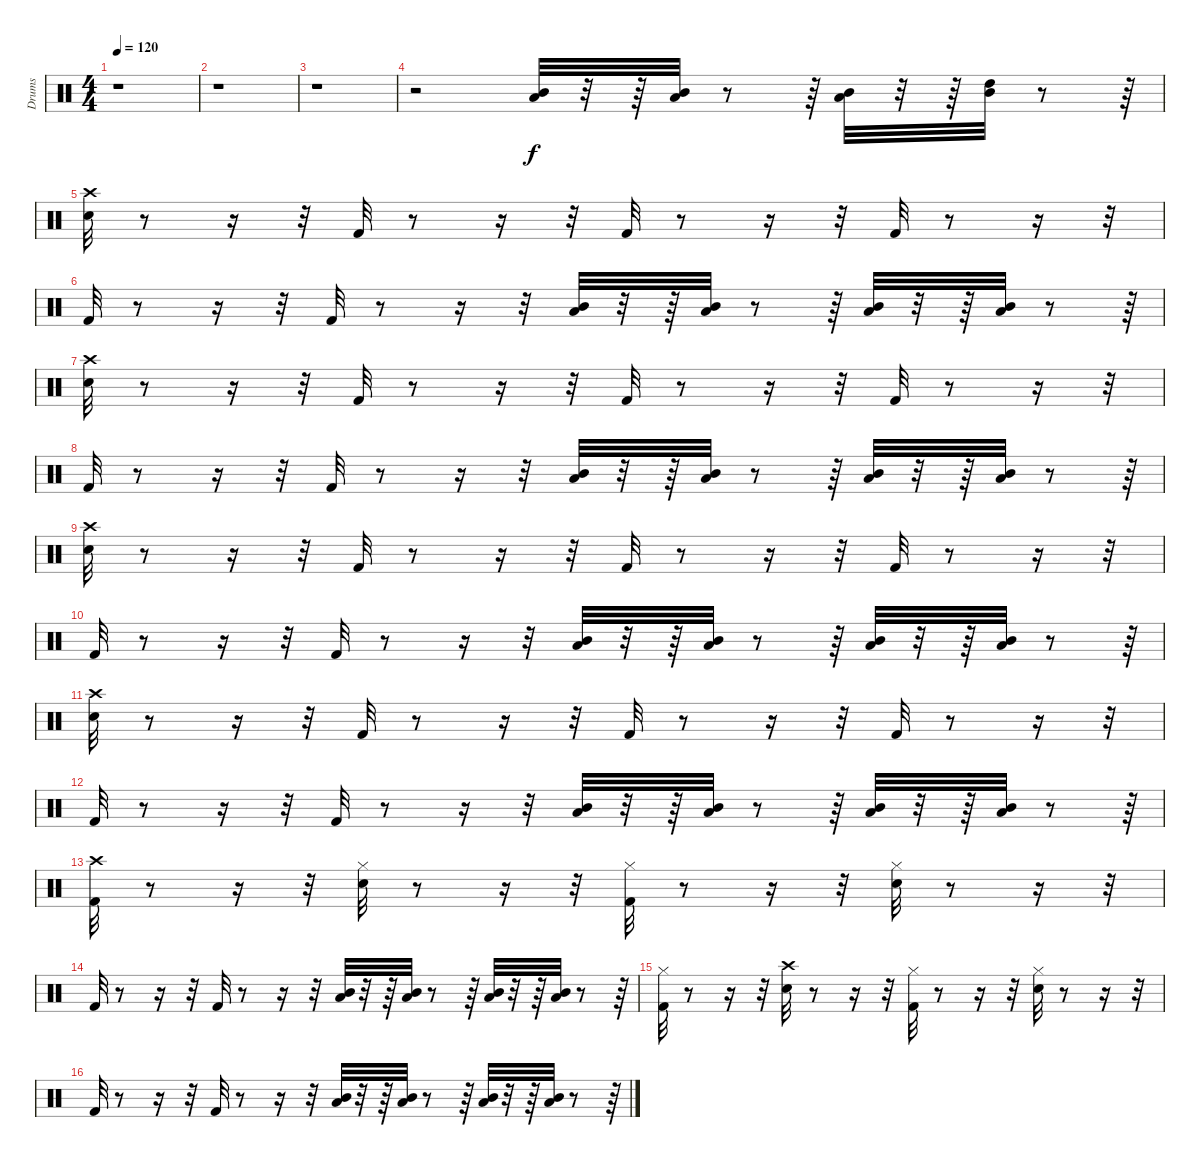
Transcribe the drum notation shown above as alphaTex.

\track ("Drums" "Drums") {instrument percussion}
\staff {score}
\articulation defaults
\ts (4 4)
\tempo 120
\clef neutral
\ks c
r.1{dy f} |
r.1 |
r.1 |
r.2 ("Low Tom (hit)" "Mid Tom (hit)").32 r.32 r.64 ("Low Tom (hit)" "Mid Tom (hit)").32 r.8 r.64 ("Low Tom (hit)" "Mid Tom (hit)").32 r.32 r.64 ("High Tom (hit)" "Mid Tom (hit)").32 r.8 r.64 |
("Electric Snare (hit)" "Crash high (hit)").32 r.8 r.16 r.32 "Kick (hit) 2".32 r.8 r.16 r.32 "Kick (hit) 2".32 r.8 r.16 r.32 "Kick (hit) 2".32 r.8 r.16 r.32 |
"Kick (hit) 2".32 r.8 r.16 r.32 "Kick (hit) 2".32 r.8 r.16 r.32 ("Mid Tom (hit)" "Low Tom (hit)").32 r.32 r.64 ("Mid Tom (hit)" "Low Tom (hit)").32 r.8 r.64 ("Low Tom (hit)" "Mid Tom (hit)").32 r.32 r.64 ("Low Tom (hit)" "Mid Tom (hit)").32 r.8 r.64 |
("Electric Snare (hit)" "Crash high (hit)").32 r.8 r.16 r.32 "Kick (hit) 2".32 r.8 r.16 r.32 "Kick (hit) 2".32 r.8 r.16 r.32 "Kick (hit) 2".32 r.8 r.16 r.32 |
"Kick (hit) 2".32 r.8 r.16 r.32 "Kick (hit) 2".32 r.8 r.16 r.32 ("Mid Tom (hit)" "Low Tom (hit)").32 r.32 r.64 ("Mid Tom (hit)" "Low Tom (hit)").32 r.8 r.64 ("Low Tom (hit)" "Mid Tom (hit)").32 r.32 r.64 ("Low Tom (hit)" "Mid Tom (hit)").32 r.8 r.64 |
("Electric Snare (hit)" "Crash high (hit)").32 r.8 r.16 r.32 "Kick (hit) 2".32 r.8 r.16 r.32 "Kick (hit) 2".32 r.8 r.16 r.32 "Kick (hit) 2".32 r.8 r.16 r.32 |
"Kick (hit) 2".32 r.8 r.16 r.32 "Kick (hit) 2".32 r.8 r.16 r.32 ("Mid Tom (hit)" "Low Tom (hit)").32 r.32 r.64 ("Mid Tom (hit)" "Low Tom (hit)").32 r.8 r.64 ("Low Tom (hit)" "Mid Tom (hit)").32 r.32 r.64 ("Low Tom (hit)" "Mid Tom (hit)").32 r.8 r.64 |
("Electric Snare (hit)" "Crash high (hit)").32 r.8 r.16 r.32 "Kick (hit) 2".32 r.8 r.16 r.32 "Kick (hit) 2".32 r.8 r.16 r.32 "Kick (hit) 2".32 r.8 r.16 r.32 |
"Kick (hit) 2".32 r.8 r.16 r.32 "Kick (hit) 2".32 r.8 r.16 r.32 ("Mid Tom (hit)" "Low Tom (hit)").32 r.32 r.64 ("Mid Tom (hit)" "Low Tom (hit)").32 r.8 r.64 ("Low Tom (hit)" "Mid Tom (hit)").32 r.32 r.64 ("Low Tom (hit)" "Mid Tom (hit)").32 r.8 r.64 |
("Kick (hit) 2" "Crash high (hit)").32 r.8 r.16 r.32 ("Hi-Hat (closed)" "Electric Snare (hit)").32 r.8 r.16 r.32 ("Hi-Hat (closed)" "Kick (hit) 2").32 r.8 r.16 r.32 ("Electric Snare (hit)" "Hi-Hat (closed)").32 r.8 r.16 r.32 |
"Kick (hit) 2".32 r.8 r.16 r.32 "Kick (hit) 2".32 r.8 r.16 r.32 ("Mid Tom (hit)" "Low Tom (hit)").32 r.32 r.64 ("Mid Tom (hit)" "Low Tom (hit)").32 r.8 r.64 ("Low Tom (hit)" "Mid Tom (hit)").32 r.32 r.64 ("Low Tom (hit)" "Mid Tom (hit)").32 r.8 r.64 |
("Hi-Hat (closed)" "Kick (hit) 2").32 r.8 r.16 r.32 ("Electric Snare (hit)" "Crash high (hit)").32 r.8 r.16 r.32 ("Kick (hit) 2" "Hi-Hat (closed)").32 r.8 r.16 r.32 ("Electric Snare (hit)" "Hi-Hat (closed)").32 r.8 r.16 r.32 |
"Kick (hit) 2".32 r.8 r.16 r.32 "Kick (hit) 2".32 r.8 r.16 r.32 ("Mid Tom (hit)" "Low Tom (hit)").32 r.32 r.64 ("Mid Tom (hit)" "Low Tom (hit)").32 r.8 r.64 ("Low Tom (hit)" "Mid Tom (hit)").32 r.32 r.64 ("Low Tom (hit)" "Mid Tom (hit)").32 r.8 r.64
